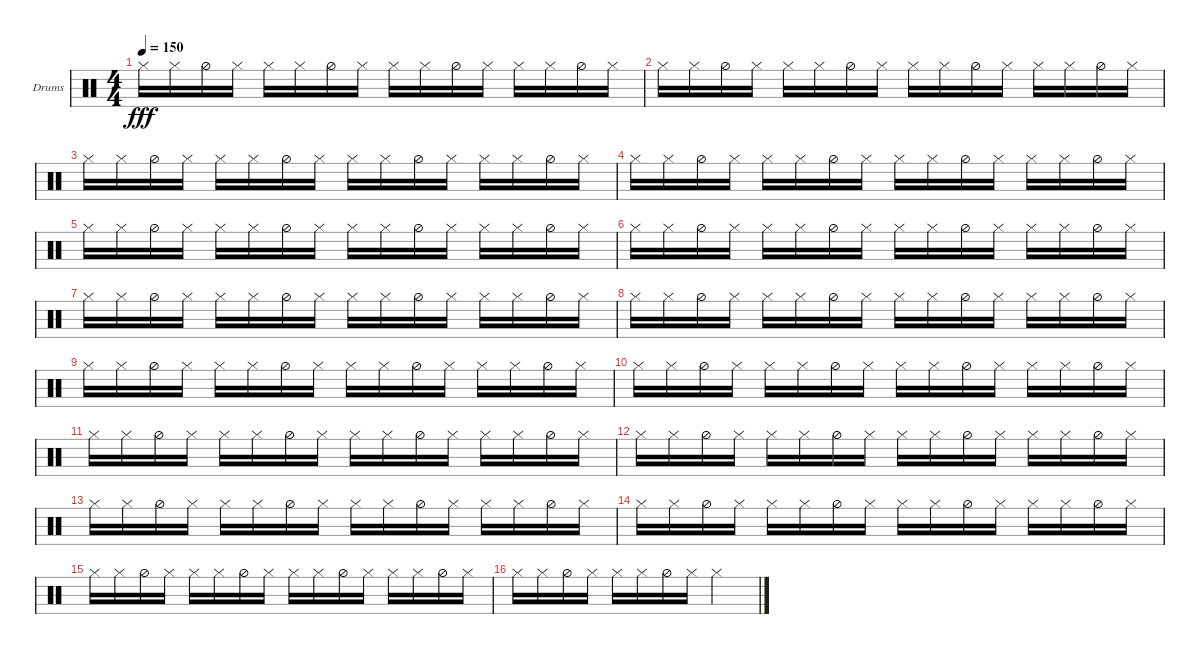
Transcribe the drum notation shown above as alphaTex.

\defaultSystemsLayout 4
\bracketExtendMode groupsimilarinstruments
\firstSystemTrackNameOrientation horizontal
\otherSystemsTrackNameOrientation horizontal
\track ("Helders" "Drums") {instrument percussion}
\staff {score}
\articulation defaults
\ts (4 4)
\tempo 150
\clef neutral
\ks c "Hi-Hat (closed)".16{dy fff} "Hi-Hat (closed)".16 "Hi-Hat (half)".16 "Hi-Hat (closed)".16 "Hi-Hat (closed)".16 "Hi-Hat (closed)".16 "Hi-Hat (half)".16 "Hi-Hat (closed)".16 "Hi-Hat (closed)".16 "Hi-Hat (closed)".16 "Hi-Hat (half)".16 "Hi-Hat (closed)".16 "Hi-Hat (closed)".16 "Hi-Hat (closed)".16 "Hi-Hat (half)".16 "Hi-Hat (closed)".16
|
"Hi-Hat (closed)".16 "Hi-Hat (closed)".16 "Hi-Hat (half)".16 "Hi-Hat (closed)".16 "Hi-Hat (closed)".16 "Hi-Hat (closed)".16 "Hi-Hat (half)".16 "Hi-Hat (closed)".16 "Hi-Hat (closed)".16 "Hi-Hat (closed)".16 "Hi-Hat (half)".16 "Hi-Hat (closed)".16 "Hi-Hat (closed)".16 "Hi-Hat (closed)".16 "Hi-Hat (half)".16 "Hi-Hat (closed)".16 |
"Hi-Hat (closed)".16 "Hi-Hat (closed)".16 "Hi-Hat (half)".16 "Hi-Hat (closed)".16 "Hi-Hat (closed)".16 "Hi-Hat (closed)".16 "Hi-Hat (half)".16 "Hi-Hat (closed)".16 "Hi-Hat (closed)".16 "Hi-Hat (closed)".16 "Hi-Hat (half)".16 "Hi-Hat (closed)".16 "Hi-Hat (closed)".16 "Hi-Hat (closed)".16 "Hi-Hat (half)".16 "Hi-Hat (closed)".16 |
"Hi-Hat (closed)".16 "Hi-Hat (closed)".16 "Hi-Hat (half)".16 "Hi-Hat (closed)".16 "Hi-Hat (closed)".16 "Hi-Hat (closed)".16 "Hi-Hat (half)".16 "Hi-Hat (closed)".16 "Hi-Hat (closed)".16 "Hi-Hat (closed)".16 "Hi-Hat (half)".16 "Hi-Hat (closed)".16 "Hi-Hat (closed)".16 "Hi-Hat (closed)".16 "Hi-Hat (half)".16 "Hi-Hat (closed)".16 |
"Hi-Hat (closed)".16 "Hi-Hat (closed)".16 "Hi-Hat (half)".16 "Hi-Hat (closed)".16 "Hi-Hat (closed)".16 "Hi-Hat (closed)".16 "Hi-Hat (half)".16 "Hi-Hat (closed)".16 "Hi-Hat (closed)".16 "Hi-Hat (closed)".16 "Hi-Hat (half)".16 "Hi-Hat (closed)".16 "Hi-Hat (closed)".16 "Hi-Hat (closed)".16 "Hi-Hat (half)".16 "Hi-Hat (closed)".16 |
"Hi-Hat (closed)".16 "Hi-Hat (closed)".16 "Hi-Hat (half)".16 "Hi-Hat (closed)".16 "Hi-Hat (closed)".16 "Hi-Hat (closed)".16 "Hi-Hat (half)".16 "Hi-Hat (closed)".16 "Hi-Hat (closed)".16 "Hi-Hat (closed)".16 "Hi-Hat (half)".16 "Hi-Hat (closed)".16 "Hi-Hat (closed)".16 "Hi-Hat (closed)".16 "Hi-Hat (half)".16 "Hi-Hat (closed)".16 |
"Hi-Hat (closed)".16 "Hi-Hat (closed)".16 "Hi-Hat (half)".16 "Hi-Hat (closed)".16 "Hi-Hat (closed)".16 "Hi-Hat (closed)".16 "Hi-Hat (half)".16 "Hi-Hat (closed)".16 "Hi-Hat (closed)".16 "Hi-Hat (closed)".16 "Hi-Hat (half)".16 "Hi-Hat (closed)".16 "Hi-Hat (closed)".16 "Hi-Hat (closed)".16 "Hi-Hat (half)".16 "Hi-Hat (closed)".16 |
"Hi-Hat (closed)".16 "Hi-Hat (closed)".16 "Hi-Hat (half)".16 "Hi-Hat (closed)".16 "Hi-Hat (closed)".16 "Hi-Hat (closed)".16 "Hi-Hat (half)".16 "Hi-Hat (closed)".16 "Hi-Hat (closed)".16 "Hi-Hat (closed)".16 "Hi-Hat (half)".16 "Hi-Hat (closed)".16 "Hi-Hat (closed)".16 "Hi-Hat (closed)".16 "Hi-Hat (half)".16 "Hi-Hat (closed)".16 |
"Hi-Hat (closed)".16 "Hi-Hat (closed)".16 "Hi-Hat (half)".16 "Hi-Hat (closed)".16 "Hi-Hat (closed)".16 "Hi-Hat (closed)".16 "Hi-Hat (half)".16 "Hi-Hat (closed)".16 "Hi-Hat (closed)".16 "Hi-Hat (closed)".16 "Hi-Hat (half)".16 "Hi-Hat (closed)".16 "Hi-Hat (closed)".16 "Hi-Hat (closed)".16 "Hi-Hat (half)".16 "Hi-Hat (closed)".16 |
"Hi-Hat (closed)".16 "Hi-Hat (closed)".16 "Hi-Hat (half)".16 "Hi-Hat (closed)".16 "Hi-Hat (closed)".16 "Hi-Hat (closed)".16 "Hi-Hat (half)".16 "Hi-Hat (closed)".16 "Hi-Hat (closed)".16 "Hi-Hat (closed)".16 "Hi-Hat (half)".16 "Hi-Hat (closed)".16 "Hi-Hat (closed)".16 "Hi-Hat (closed)".16 "Hi-Hat (half)".16 "Hi-Hat (closed)".16 |
"Hi-Hat (closed)".16 "Hi-Hat (closed)".16 "Hi-Hat (half)".16 "Hi-Hat (closed)".16 "Hi-Hat (closed)".16 "Hi-Hat (closed)".16 "Hi-Hat (half)".16 "Hi-Hat (closed)".16 "Hi-Hat (closed)".16 "Hi-Hat (closed)".16 "Hi-Hat (half)".16 "Hi-Hat (closed)".16 "Hi-Hat (closed)".16 "Hi-Hat (closed)".16 "Hi-Hat (half)".16 "Hi-Hat (closed)".16 |
"Hi-Hat (closed)".16 "Hi-Hat (closed)".16 "Hi-Hat (half)".16 "Hi-Hat (closed)".16 "Hi-Hat (closed)".16 "Hi-Hat (closed)".16 "Hi-Hat (half)".16 "Hi-Hat (closed)".16 "Hi-Hat (closed)".16 "Hi-Hat (closed)".16 "Hi-Hat (half)".16 "Hi-Hat (closed)".16 "Hi-Hat (closed)".16 "Hi-Hat (closed)".16 "Hi-Hat (half)".16 "Hi-Hat (closed)".16 |
"Hi-Hat (closed)".16 "Hi-Hat (closed)".16 "Hi-Hat (half)".16 "Hi-Hat (closed)".16 "Hi-Hat (closed)".16 "Hi-Hat (closed)".16 "Hi-Hat (half)".16 "Hi-Hat (closed)".16 "Hi-Hat (closed)".16 "Hi-Hat (closed)".16 "Hi-Hat (half)".16 "Hi-Hat (closed)".16 "Hi-Hat (closed)".16 "Hi-Hat (closed)".16 "Hi-Hat (half)".16 "Hi-Hat (closed)".16 |
"Hi-Hat (closed)".16 "Hi-Hat (closed)".16 "Hi-Hat (half)".16 "Hi-Hat (closed)".16 "Hi-Hat (closed)".16 "Hi-Hat (closed)".16 "Hi-Hat (half)".16 "Hi-Hat (closed)".16 "Hi-Hat (closed)".16 "Hi-Hat (closed)".16 "Hi-Hat (half)".16 "Hi-Hat (closed)".16 "Hi-Hat (closed)".16 "Hi-Hat (closed)".16 "Hi-Hat (half)".16 "Hi-Hat (closed)".16 |
"Hi-Hat (closed)".16 "Hi-Hat (closed)".16 "Hi-Hat (half)".16 "Hi-Hat (closed)".16 "Hi-Hat (closed)".16 "Hi-Hat (closed)".16 "Hi-Hat (half)".16 "Hi-Hat (closed)".16 "Hi-Hat (closed)".16 "Hi-Hat (closed)".16 "Hi-Hat (half)".16 "Hi-Hat (closed)".16 "Hi-Hat (closed)".16 "Hi-Hat (closed)".16 "Hi-Hat (half)".16 "Hi-Hat (closed)".16 |
"Hi-Hat (closed)".16 "Hi-Hat (closed)".16 "Hi-Hat (half)".16 "Hi-Hat (closed)".16 "Hi-Hat (closed)".16 "Hi-Hat (closed)".16 "Hi-Hat (half)".16 "Hi-Hat (closed)".16 "Hi-Hat (closed)".2
